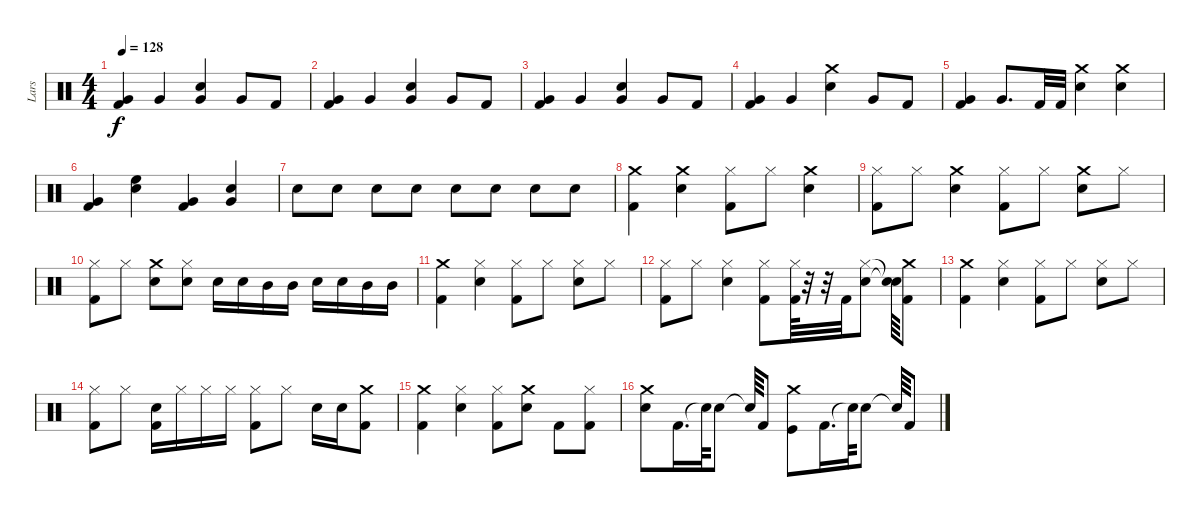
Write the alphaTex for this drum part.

\track ("Lars" "Lars") {instrument percussion}
\staff {score}
\articulation defaults
\ts (4 4)
\tempo 128
\clef neutral
\ks c
("Kick (hit) 2" "Very Low Tom (hit)").4{dy f} "Very Low Tom (hit)".4 ("Snare (hit) 2" "Very Low Tom (hit)").4 "Very Low Tom (hit)".8 "Kick (hit) 2".8 |
("Kick (hit) 2" "Very Low Tom (hit)").4 "Very Low Tom (hit)".4 ("Snare (hit) 2" "Very Low Tom (hit)").4 "Very Low Tom (hit)".8 "Kick (hit) 2".8 |
("Kick (hit) 2" "Very Low Tom (hit)").4 "Very Low Tom (hit)".4 ("Snare (hit) 2" "Very Low Tom (hit)").4 "Very Low Tom (hit)".8 "Kick (hit) 2".8 |
("Kick (hit) 2" "Very Low Tom (hit)").4 "Very Low Tom (hit)".4 ("Crash medium (hit)" "Snare (hit) 2").4 "Very Low Tom (hit)".8 "Kick (hit) 2".8 |
("Very Low Tom (hit)" "Kick (hit) 2").4 "Very Low Tom (hit)".8{d} "Kick (hit) 2".32 "Kick (hit) 2".32 ("Snare (hit) 2" "Crash medium (hit)").4 ("Snare (hit) 2" "Crash medium (hit)").4 |
("Very Low Tom (hit)" "Kick (hit) 2").4 ("High Floor Tom (hit)" "Snare (hit) 2").4 ("Very Low Tom (hit)" "Kick (hit) 2").4 ("Snare (hit) 2" "Very Low Tom (hit)").4 |
"Snare (hit) 2".8 "Snare (hit) 2".8 "Snare (hit) 2".8 "Snare (hit) 2".8 "Snare (hit) 2".8 "Snare (hit) 2".8 "Snare (hit) 2".8 "Snare (hit) 2".8 |
("Kick (hit) 2" "Crash medium (hit)").4 ("Snare (hit) 2" "Crash medium (hit)").4 ("Kick (hit) 2" "Hi-Hat (closed)").8 "Hi-Hat (closed)".8 ("Crash medium (hit)" "Snare (hit) 2").4 |
("Kick (hit) 2" "Hi-Hat (closed)").8 "Hi-Hat (closed)".8 ("Crash medium (hit)" "Snare (hit) 2").4 ("Kick (hit) 2" "Hi-Hat (closed)").8 "Hi-Hat (closed)".8 ("Snare (hit) 2" "Crash medium (hit)").8 "Hi-Hat (closed)".8 |
("Hi-Hat (closed)" "Kick (hit) 2").8 "Hi-Hat (closed)".8 ("Crash medium (hit)" "Snare (hit) 2").8 ("Snare (hit) 2" "Hi-Hat (closed)").8 "Snare (hit) 2".16 "Snare (hit) 2".16 "Mid Tom (hit)".16 "Mid Tom (hit)".16 "Snare (hit) 2".16 "Snare (hit) 2".16 "Mid Tom (hit)".16 "Mid Tom (hit)".16 |
("Kick (hit) 2" "Crash medium (hit)").4 ("Hi-Hat (closed)" "Snare (hit) 2").4 ("Hi-Hat (closed)" "Kick (hit) 2").8 "Hi-Hat (closed)".8 ("Hi-Hat (closed)" "Snare (hit) 2").8 "Hi-Hat (closed)".8 |
("Kick (hit) 2" "Hi-Hat (closed)").8 "Hi-Hat (closed)".8 ("Hi-Hat (closed)" "Snare (hit) 2").4 ("Kick (hit) 2" "Hi-Hat (closed)").8 ("Kick (hit) 2" "Hi-Hat (closed)").64 r.32 r.32 "Kick (hit) 2".32 ("Snare (hit) 2" "Hi-Hat (closed)").8 ("Snare (hit)"{t} "Snare (hit)"{t}).64 ("Kick (hit) 2" "Crash medium (hit)").8 |
("Kick (hit) 2" "Crash medium (hit)").4 ("Snare (hit) 2" "Hi-Hat (closed)").4 ("Kick (hit) 2" "Hi-Hat (closed)").8 "Hi-Hat (closed)".8 ("Snare (hit) 2" "Hi-Hat (closed)").8 "Hi-Hat (closed)".8 |
("Kick (hit) 2" "Hi-Hat (closed)").8 "Hi-Hat (closed)".8 ("Kick (hit) 2" "Snare (hit) 2").16 "Hi-Hat (closed)".16 "Hi-Hat (closed)".16 "Hi-Hat (closed)".16 ("Kick (hit) 2" "Hi-Hat (closed)").8 "Hi-Hat (closed)".8 "Snare (hit) 2".16 "Snare (hit) 2".16 ("Crash medium (hit)" "Kick (hit) 2").8 |
("Crash medium (hit)" "Kick (hit) 2").4 ("Hi-Hat (closed)" "Snare (hit) 2").4 ("Hi-Hat (closed)" "Kick (hit) 2").8 ("Crash medium (hit)" "Snare (hit) 2").8 "Kick (hit) 2".8 ("Hi-Hat (closed)" "Kick (hit) 2").8 |
("Crash medium (hit)" "Snare (hit) 2").8 "Kick (hit) 2".16{d} "Snare (hit)"{t}.64 "Snare (hit) 2".8 "Snare (hit)"{t}.64 "Kick (hit) 2".8 ("Crash medium (hit)" "Kick (hit)").8 "Kick (hit) 2".16{d} "Snare (hit)"{t}.64 "Snare (hit) 2".8 "Snare (hit)"{t}.64 "Kick (hit) 2".8
